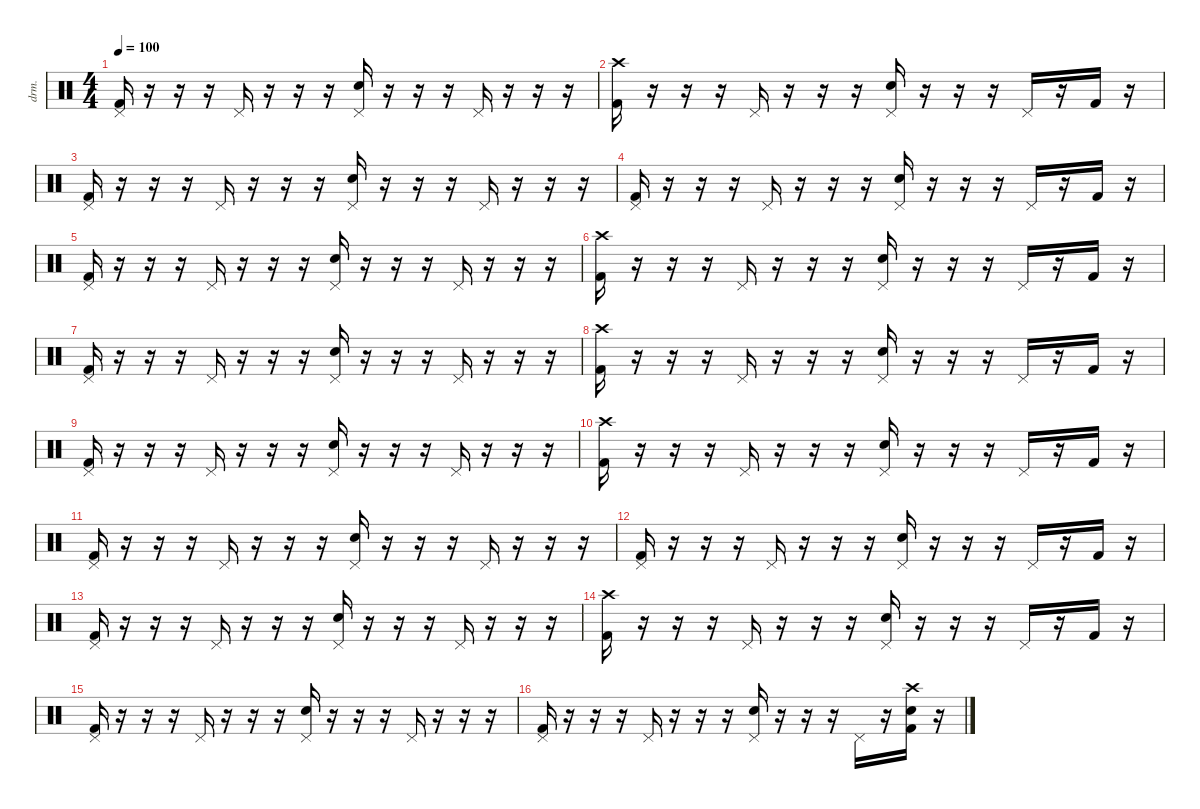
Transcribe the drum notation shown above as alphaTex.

\defaultSystemsLayout 4
\hideDynamics
\bracketExtendMode nobrackets
\otherSystemsTrackNameOrientation horizontal
\track ("Drums" "drm.") {instrument percussion}
\staff {score}
\articulation defaults
\ts (4 4)
\tempo 100
\clef neutral
\ks c
("Kick (hit) 2" "Pedal Hi-Hat (hit)").16{dy ff beam Up} r.16{beam Up} r.16{beam Up} r.16{beam Up} "Pedal Hi-Hat (hit)".16{beam Up} r.16{beam Up} r.16{beam Up} r.16{beam Up} ("Snare (hit) 2" "Pedal Hi-Hat (hit)").16{beam Up} r.16{beam Up} r.16{beam Up} r.16{beam Up} "Pedal Hi-Hat (hit)".16{beam Up} r.16{beam Up} r.16{beam Up} r.16{beam Up} |
("Kick (hit) 2" "Crash high (hit)").16{beam Down} r.16{beam Down} r.16{beam Down} r.16{beam Down} "Pedal Hi-Hat (hit)".16{beam Up} r.16{beam Up} r.16{beam Up} r.16{beam Up} ("Snare (hit) 2" "Pedal Hi-Hat (hit)").16{beam Up} r.16{beam Up} r.16{beam Up} r.16{beam Up} "Pedal Hi-Hat (hit)".16{beam Up} r.16{beam Up} "Kick (hit) 2".16{beam Up} r.16{beam Up} |
("Kick (hit) 2" "Pedal Hi-Hat (hit)").16{beam Up} r.16{beam Up} r.16{beam Up} r.16{beam Up} "Pedal Hi-Hat (hit)".16{beam Up} r.16{beam Up} r.16{beam Up} r.16{beam Up} ("Snare (hit) 2" "Pedal Hi-Hat (hit)").16{beam Up} r.16{beam Up} r.16{beam Up} r.16{beam Up} "Pedal Hi-Hat (hit)".16{beam Up} r.16{beam Up} r.16{beam Up} r.16{beam Up} |
("Kick (hit) 2" "Pedal Hi-Hat (hit)").16{beam Up} r.16{beam Up} r.16{beam Up} r.16{beam Up} "Pedal Hi-Hat (hit)".16{beam Up} r.16{beam Up} r.16{beam Up} r.16{beam Up} ("Snare (hit) 2" "Pedal Hi-Hat (hit)").16{beam Up} r.16{beam Up} r.16{beam Up} r.16{beam Up} "Pedal Hi-Hat (hit)".16{beam Up} r.16{beam Up} "Kick (hit) 2".16{beam Up} r.16{beam Up} |
("Kick (hit) 2" "Pedal Hi-Hat (hit)").16{beam Up} r.16{beam Up} r.16{beam Up} r.16{beam Up} "Pedal Hi-Hat (hit)".16{beam Up} r.16{beam Up} r.16{beam Up} r.16{beam Up} ("Snare (hit) 2" "Pedal Hi-Hat (hit)").16{beam Up} r.16{beam Up} r.16{beam Up} r.16{beam Up} "Pedal Hi-Hat (hit)".16{beam Up} r.16{beam Up} r.16{beam Up} r.16{beam Up} |
("Kick (hit) 2" "Crash high (hit)").16{beam Down} r.16{beam Down} r.16{beam Down} r.16{beam Down} "Pedal Hi-Hat (hit)".16{beam Up} r.16{beam Up} r.16{beam Up} r.16{beam Up} ("Snare (hit) 2" "Pedal Hi-Hat (hit)").16{beam Up} r.16{beam Up} r.16{beam Up} r.16{beam Up} "Pedal Hi-Hat (hit)".16{beam Up} r.16{beam Up} "Kick (hit) 2".16{beam Up} r.16{beam Up} |
("Kick (hit) 2" "Pedal Hi-Hat (hit)").16{beam Up} r.16{beam Up} r.16{beam Up} r.16{beam Up} "Pedal Hi-Hat (hit)".16{beam Up} r.16{beam Up} r.16{beam Up} r.16{beam Up} ("Snare (hit) 2" "Pedal Hi-Hat (hit)").16{beam Up} r.16{beam Up} r.16{beam Up} r.16{beam Up} "Pedal Hi-Hat (hit)".16{beam Up} r.16{beam Up} r.16{beam Up} r.16{beam Up} |
("Kick (hit) 2" "Crash high (hit)").16{beam Down} r.16{beam Down} r.16{beam Down} r.16{beam Down} "Pedal Hi-Hat (hit)".16{beam Up} r.16{beam Up} r.16{beam Up} r.16{beam Up} ("Snare (hit) 2" "Pedal Hi-Hat (hit)").16{beam Up} r.16{beam Up} r.16{beam Up} r.16{beam Up} "Pedal Hi-Hat (hit)".16{beam Up} r.16{beam Up} "Kick (hit) 2".16{beam Up} r.16{beam Up} |
("Kick (hit) 2" "Pedal Hi-Hat (hit)").16{beam Up} r.16{beam Up} r.16{beam Up} r.16{beam Up} "Pedal Hi-Hat (hit)".16{beam Up} r.16{beam Up} r.16{beam Up} r.16{beam Up} ("Snare (hit) 2" "Pedal Hi-Hat (hit)").16{beam Up} r.16{beam Up} r.16{beam Up} r.16{beam Up} "Pedal Hi-Hat (hit)".16{beam Up} r.16{beam Up} r.16{beam Up} r.16{beam Up} |
("Kick (hit) 2" "Crash high (hit)").16{beam Down} r.16{beam Down} r.16{beam Down} r.16{beam Down} "Pedal Hi-Hat (hit)".16{beam Up} r.16{beam Up} r.16{beam Up} r.16{beam Up} ("Snare (hit) 2" "Pedal Hi-Hat (hit)").16{beam Up} r.16{beam Up} r.16{beam Up} r.16{beam Up} "Pedal Hi-Hat (hit)".16{beam Up} r.16{beam Up} "Kick (hit) 2".16{beam Up} r.16{beam Up} |
("Kick (hit) 2" "Pedal Hi-Hat (hit)").16{beam Up} r.16{beam Up} r.16{beam Up} r.16{beam Up} "Pedal Hi-Hat (hit)".16{beam Up} r.16{beam Up} r.16{beam Up} r.16{beam Up} ("Snare (hit) 2" "Pedal Hi-Hat (hit)").16{beam Up} r.16{beam Up} r.16{beam Up} r.16{beam Up} "Pedal Hi-Hat (hit)".16{beam Up} r.16{beam Up} r.16{beam Up} r.16{beam Up} |
("Kick (hit) 2" "Pedal Hi-Hat (hit)").16{beam Up} r.16{beam Up} r.16{beam Up} r.16{beam Up} "Pedal Hi-Hat (hit)".16{beam Up} r.16{beam Up} r.16{beam Up} r.16{beam Up} ("Snare (hit) 2" "Pedal Hi-Hat (hit)").16{beam Up} r.16{beam Up} r.16{beam Up} r.16{beam Up} "Pedal Hi-Hat (hit)".16{beam Up} r.16{beam Up} "Kick (hit) 2".16{beam Up} r.16{beam Up} |
("Kick (hit) 2" "Pedal Hi-Hat (hit)").16{beam Up} r.16{beam Up} r.16{beam Up} r.16{beam Up} "Pedal Hi-Hat (hit)".16{beam Up} r.16{beam Up} r.16{beam Up} r.16{beam Up} ("Snare (hit) 2" "Pedal Hi-Hat (hit)").16{beam Up} r.16{beam Up} r.16{beam Up} r.16{beam Up} "Pedal Hi-Hat (hit)".16{beam Up} r.16{beam Up} r.16{beam Up} r.16{beam Up} |
("Kick (hit) 2" "Crash high (hit)").16{beam Down} r.16{beam Down} r.16{beam Down} r.16{beam Down} "Pedal Hi-Hat (hit)".16{beam Up} r.16{beam Up} r.16{beam Up} r.16{beam Up} ("Snare (hit) 2" "Pedal Hi-Hat (hit)").16{beam Up} r.16{beam Up} r.16{beam Up} r.16{beam Up} "Pedal Hi-Hat (hit)".16{beam Up} r.16{beam Up} "Kick (hit) 2".16{beam Up} r.16{beam Up} |
("Kick (hit) 2" "Pedal Hi-Hat (hit)").16{beam Up} r.16{beam Up} r.16{beam Up} r.16{beam Up} "Pedal Hi-Hat (hit)".16{beam Up} r.16{beam Up} r.16{beam Up} r.16{beam Up} ("Snare (hit) 2" "Pedal Hi-Hat (hit)").16{beam Up} r.16{beam Up} r.16{beam Up} r.16{beam Up} "Pedal Hi-Hat (hit)".16{beam Up} r.16{beam Up} r.16{beam Up} r.16{beam Up} |
("Kick (hit) 2" "Pedal Hi-Hat (hit)").16{beam Up} r.16{beam Up} r.16{beam Up} r.16{beam Up} "Pedal Hi-Hat (hit)".16{beam Up} r.16{beam Up} r.16{beam Up} r.16{beam Up} ("Snare (hit) 2" "Pedal Hi-Hat (hit)").16{beam Up} r.16{beam Up} r.16{beam Up} r.16{beam Up} "Pedal Hi-Hat (hit)".16{beam Down} r.16{beam Down} ("Kick (hit) 2" "Snare (hit) 2" "Crash high (hit)").16{beam Down} r.16{beam Down}
